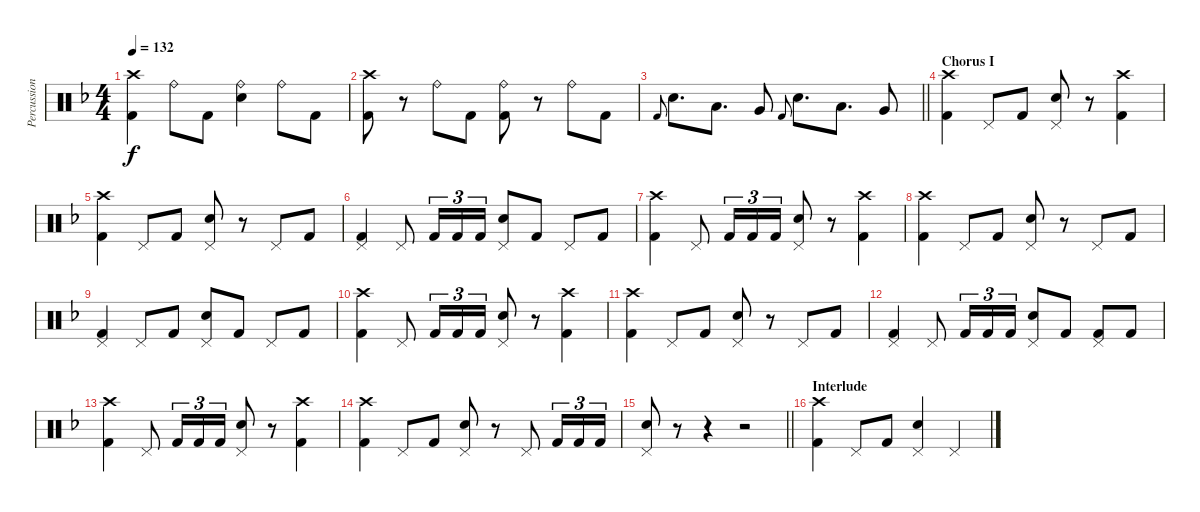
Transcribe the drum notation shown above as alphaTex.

\track ("Percussion" "Percussion") {instrument percussion}
\staff {score}
\articulation defaults
\ts (4 4)
\tempo 132
\clef neutral
\ks dminor
("Crash high (hit)" "Kick (hit) 2").4{dy f} "Ride (bell)".8 "Kick (hit) 2".8 ("Ride (bell)" "Electric Snare (hit)").4 "Ride (bell)".8 "Kick (hit) 2".8 |
("Crash high (hit)" "Kick (hit) 2").8 r.8 "Ride (bell)".8 "Kick (hit) 2".8 ("Ride (bell)" "Kick (hit) 2").8 r.8 "Ride (bell)".8 "Kick (hit) 2".8 |
\barLineRight lightlight "Kick (hit) 2".8{gr onbeat} "Electric Snare (hit)".8{d} "Low Tom (hit)".8{d} "Very Low Tom (hit)".8 "Kick (hit) 2".8{gr onbeat} "Electric Snare (hit)".8{d} "Low Tom (hit)".8{d} "Very Low Tom (hit)".8
|
\section ("" "Chorus I")
("Crash high (hit)" "Kick (hit) 2").4 "Pedal Hi-Hat (hit)".8 "Kick (hit) 2".8 ("Pedal Hi-Hat (hit)" "Electric Snare (hit)").8 r.8 ("Crash high (hit)" "Kick (hit) 2").4 |
("Crash high (hit)" "Kick (hit) 2").4 "Pedal Hi-Hat (hit)".8 "Kick (hit) 2".8 ("Pedal Hi-Hat (hit)" "Electric Snare (hit)").8 r.8 "Pedal Hi-Hat (hit)".8 "Kick (hit) 2".8 |
("Pedal Hi-Hat (hit)" "Kick (hit) 2").4 "Pedal Hi-Hat (hit)".8 "Kick (hit) 2".16{tu (3 2)} "Kick (hit) 2".16{tu (3 2)} "Kick (hit) 2".16{tu (3 2)} ("Pedal Hi-Hat (hit)" "Electric Snare (hit)").8 "Kick (hit) 2".8 "Pedal Hi-Hat (hit)".8 "Kick (hit) 2".8 |
("Crash high (hit)" "Kick (hit) 2").4 "Pedal Hi-Hat (hit)".8 "Kick (hit) 2".16{tu (3 2)} "Kick (hit) 2".16{tu (3 2)} "Kick (hit) 2".16{tu (3 2)} ("Pedal Hi-Hat (hit)" "Electric Snare (hit)").8 r.8 ("Crash high (hit)" "Kick (hit) 2").4 |
("Crash high (hit)" "Kick (hit) 2").4 "Pedal Hi-Hat (hit)".8 "Kick (hit) 2".8 ("Pedal Hi-Hat (hit)" "Electric Snare (hit)").8 r.8 "Pedal Hi-Hat (hit)".8 "Kick (hit) 2".8 |
("Pedal Hi-Hat (hit)" "Kick (hit) 2").4 "Pedal Hi-Hat (hit)".8 "Kick (hit) 2".8 ("Pedal Hi-Hat (hit)" "Electric Snare (hit)").8 "Kick (hit) 2".8 "Pedal Hi-Hat (hit)".8 "Kick (hit) 2".8 |
("Crash high (hit)" "Kick (hit) 2").4 "Pedal Hi-Hat (hit)".8 "Kick (hit) 2".16{tu (3 2)} "Kick (hit) 2".16{tu (3 2)} "Kick (hit) 2".16{tu (3 2)} ("Pedal Hi-Hat (hit)" "Electric Snare (hit)").8 r.8 ("Crash high (hit)" "Kick (hit) 2").4 |
("Crash high (hit)" "Kick (hit) 2").4 "Pedal Hi-Hat (hit)".8 "Kick (hit) 2".8 ("Pedal Hi-Hat (hit)" "Electric Snare (hit)").8 r.8 "Pedal Hi-Hat (hit)".8 "Kick (hit) 2".8 |
("Pedal Hi-Hat (hit)" "Kick (hit) 2").4 "Pedal Hi-Hat (hit)".8 "Kick (hit) 2".16{tu (3 2)} "Kick (hit) 2".16{tu (3 2)} "Kick (hit) 2".16{tu (3 2)} ("Pedal Hi-Hat (hit)" "Electric Snare (hit)").8 "Kick (hit) 2".8 ("Pedal Hi-Hat (hit)" "Kick (hit) 2").8 "Kick (hit) 2".8 |
("Crash high (hit)" "Kick (hit) 2").4 "Pedal Hi-Hat (hit)".8 "Kick (hit) 2".16{tu (3 2)} "Kick (hit) 2".16{tu (3 2)} "Kick (hit) 2".16{tu (3 2)} ("Pedal Hi-Hat (hit)" "Electric Snare (hit)").8 r.8 ("Crash high (hit)" "Kick (hit) 2").4 |
("Crash high (hit)" "Kick (hit) 2").4 "Pedal Hi-Hat (hit)".8 "Kick (hit) 2".8 ("Pedal Hi-Hat (hit)" "Electric Snare (hit)").8 r.8 "Pedal Hi-Hat (hit)".8 "Kick (hit) 2".16{tu (3 2)} "Kick (hit) 2".16{tu (3 2)} "Kick (hit) 2".16{tu (3 2)} |
\barLineRight lightlight
("Pedal Hi-Hat (hit)" "Electric Snare (hit)").8 r.8 r.4 r.2 |
\section ("" "Interlude")
("Crash high (hit)" "Kick (hit) 2").4 "Pedal Hi-Hat (hit)".8 "Kick (hit) 2".8 ("Pedal Hi-Hat (hit)" "Electric Snare (hit)").4 "Pedal Hi-Hat (hit)".4
